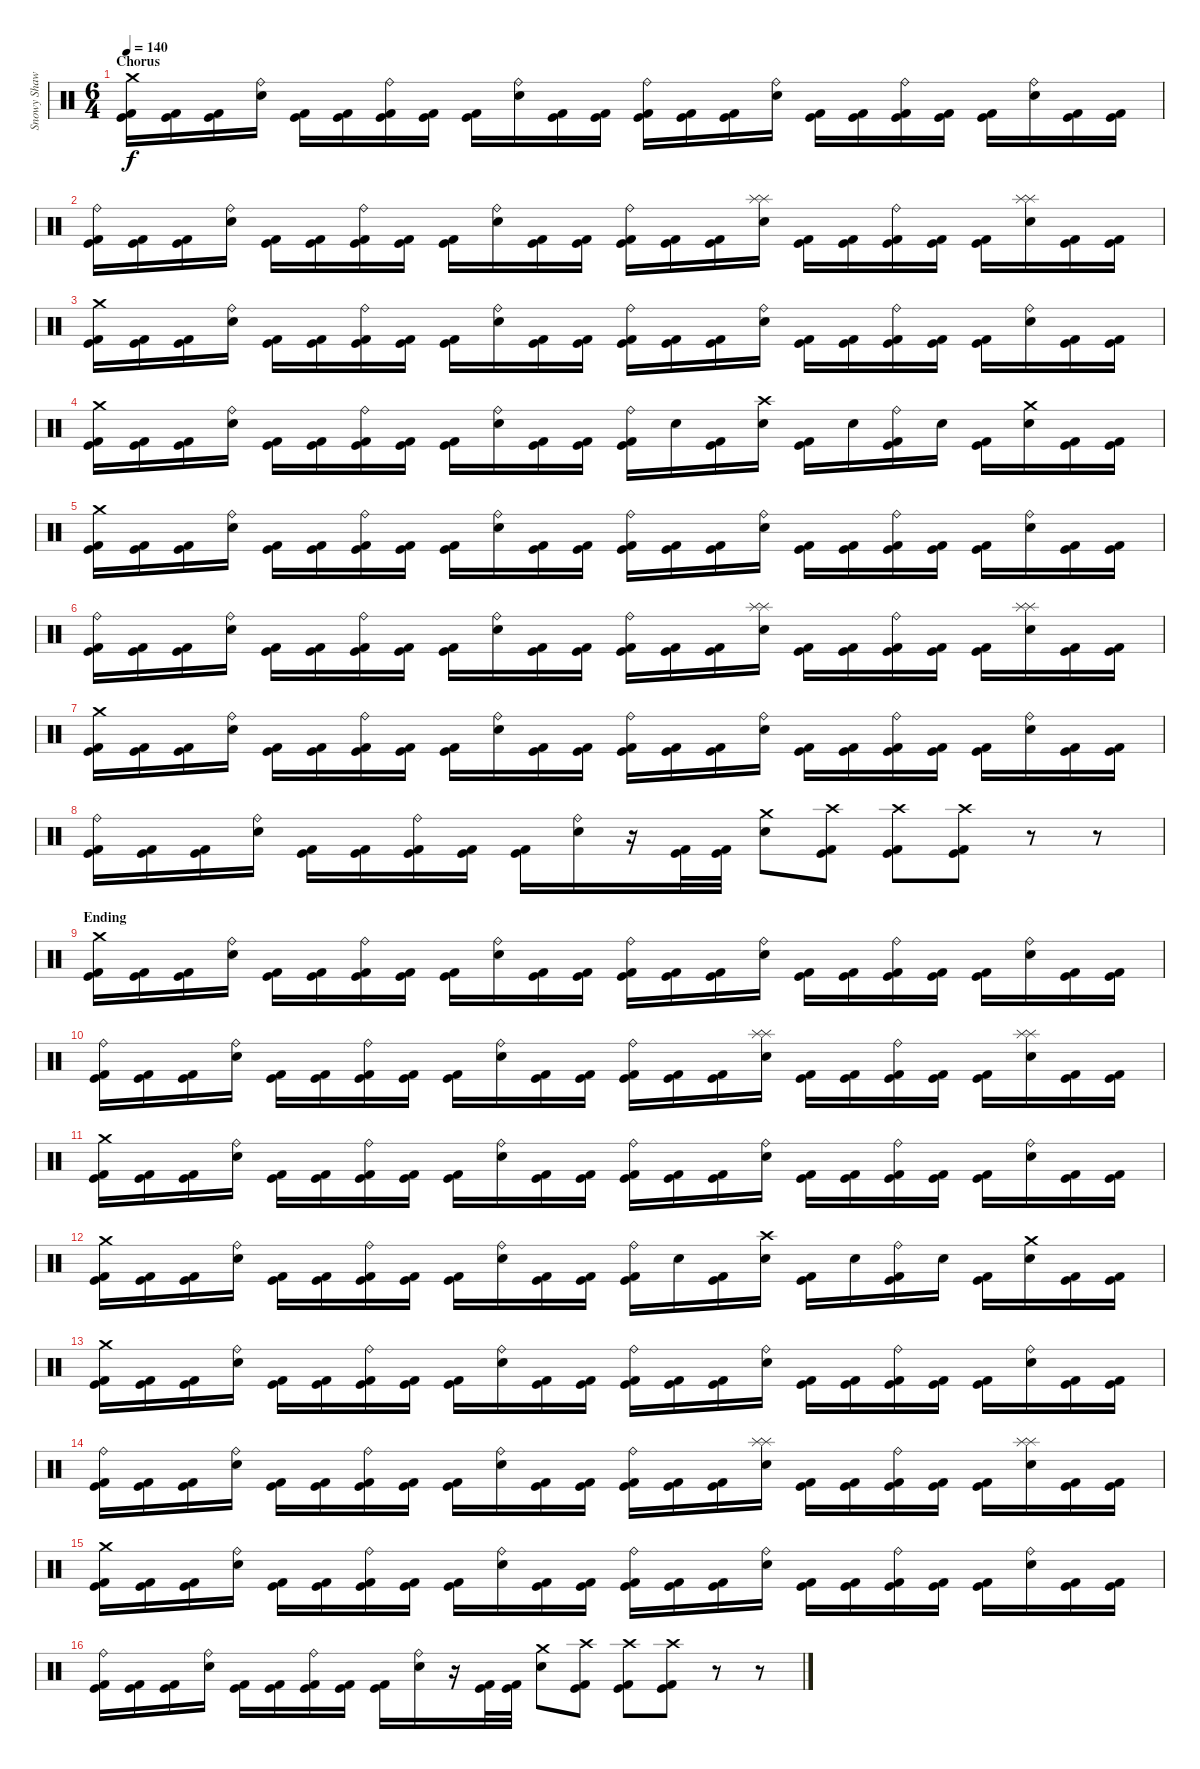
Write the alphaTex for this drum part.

\track ("Snowy Shaw" "Snowy Shaw") {instrument percussion}
\staff {score}
\articulation defaults
\ts (6 4)
\section ("" "Chorus")
\tempo 140
\clef neutral
\ks c
("Crash medium (hit)" "Kick (hit) 2" "Kick (hit)").16{dy f} ("Kick (hit) 2" "Kick (hit)").16 ("Kick (hit) 2" "Kick (hit)").16 ("Ride (bell)" "Electric Snare (hit)").16 ("Kick (hit) 2" "Kick (hit)").16 ("Kick (hit) 2" "Kick (hit)").16 ("Ride (bell)" "Kick (hit) 2" "Kick (hit)").16 ("Kick (hit) 2" "Kick (hit)").16 ("Kick (hit)" "Kick (hit) 2").16 ("Ride (bell)" "Electric Snare (hit)").16 ("Kick (hit)" "Kick (hit) 2").16 ("Kick (hit)" "Kick (hit) 2").16 ("Ride (bell)" "Kick (hit)" "Kick (hit) 2").16 ("Kick (hit) 2" "Kick (hit)").16 ("Kick (hit)" "Kick (hit) 2").16 ("Ride (bell)" "Electric Snare (hit)").16 ("Kick (hit) 2" "Kick (hit)").16 ("Kick (hit) 2" "Kick (hit)").16 ("Ride (bell)" "Kick (hit) 2" "Kick (hit)").16 ("Kick (hit) 2" "Kick (hit)").16 ("Kick (hit)" "Kick (hit) 2").16 ("Ride (bell)" "Electric Snare (hit)").16 ("Kick (hit)" "Kick (hit) 2").16 ("Kick (hit)" "Kick (hit) 2").16 |
("Ride (bell)" "Kick (hit) 2" "Kick (hit)").16 ("Kick (hit) 2" "Kick (hit)").16 ("Kick (hit) 2" "Kick (hit)").16 ("Ride (bell)" "Electric Snare (hit)").16 ("Kick (hit) 2" "Kick (hit)").16 ("Kick (hit) 2" "Kick (hit)").16 ("Ride (bell)" "Kick (hit) 2" "Kick (hit)").16 ("Kick (hit) 2" "Kick (hit)").16 ("Kick (hit)" "Kick (hit) 2").16 ("Ride (bell)" "Electric Snare (hit)").16 ("Kick (hit)" "Kick (hit) 2").16 ("Kick (hit)" "Kick (hit) 2").16 ("Ride (bell)" "Kick (hit)" "Kick (hit) 2").16 ("Kick (hit) 2" "Kick (hit)").16 ("Kick (hit)" "Kick (hit) 2").16 ("Splash (hit)" "Splash (hit)" "Electric Snare (hit)").16 ("Kick (hit) 2" "Kick (hit)").16 ("Kick (hit) 2" "Kick (hit)").16 ("Ride (bell)" "Kick (hit) 2" "Kick (hit)").16 ("Kick (hit) 2" "Kick (hit)").16 ("Kick (hit)" "Kick (hit) 2").16 ("Splash (hit)" "Splash (hit)" "Electric Snare (hit)").16 ("Kick (hit)" "Kick (hit) 2").16 ("Kick (hit)" "Kick (hit) 2").16 |
("Crash medium (hit)" "Kick (hit) 2" "Kick (hit)").16 ("Kick (hit) 2" "Kick (hit)").16 ("Kick (hit) 2" "Kick (hit)").16 ("Ride (bell)" "Electric Snare (hit)").16 ("Kick (hit) 2" "Kick (hit)").16 ("Kick (hit) 2" "Kick (hit)").16 ("Ride (bell)" "Kick (hit) 2" "Kick (hit)").16 ("Kick (hit) 2" "Kick (hit)").16 ("Kick (hit)" "Kick (hit) 2").16 ("Ride (bell)" "Electric Snare (hit)").16 ("Kick (hit)" "Kick (hit) 2").16 ("Kick (hit)" "Kick (hit) 2").16 ("Ride (bell)" "Kick (hit)" "Kick (hit) 2").16 ("Kick (hit) 2" "Kick (hit)").16 ("Kick (hit)" "Kick (hit) 2").16 ("Ride (bell)" "Electric Snare (hit)").16 ("Kick (hit) 2" "Kick (hit)").16 ("Kick (hit) 2" "Kick (hit)").16 ("Ride (bell)" "Kick (hit) 2" "Kick (hit)").16 ("Kick (hit) 2" "Kick (hit)").16 ("Kick (hit)" "Kick (hit) 2").16 ("Ride (bell)" "Electric Snare (hit)").16 ("Kick (hit)" "Kick (hit) 2").16 ("Kick (hit)" "Kick (hit) 2").16 |
("Crash medium (hit)" "Kick (hit) 2" "Kick (hit)").16 ("Kick (hit) 2" "Kick (hit)").16 ("Kick (hit) 2" "Kick (hit)").16 ("Ride (bell)" "Electric Snare (hit)").16 ("Kick (hit) 2" "Kick (hit)").16 ("Kick (hit) 2" "Kick (hit)").16 ("Ride (bell)" "Kick (hit) 2" "Kick (hit)").16 ("Kick (hit) 2" "Kick (hit)").16 ("Kick (hit)" "Kick (hit) 2").16 ("Ride (bell)" "Electric Snare (hit)").16 ("Kick (hit)" "Kick (hit) 2").16 ("Kick (hit)" "Kick (hit) 2").16 ("Ride (bell)" "Kick (hit)" "Kick (hit) 2").16 "Electric Snare (hit)".16 ("Kick (hit)" "Kick (hit) 2").16 ("Crash high (hit)" "Electric Snare (hit)").16 ("Kick (hit) 2" "Kick (hit)").16 "Electric Snare (hit)".16 ("Ride (bell)" "Kick (hit) 2" "Kick (hit)").16 "Electric Snare (hit)".16 ("Kick (hit)" "Kick (hit) 2").16 ("Crash medium (hit)" "Electric Snare (hit)").16 ("Kick (hit)" "Kick (hit) 2").16 ("Kick (hit)" "Kick (hit) 2").16 |
("Crash medium (hit)" "Kick (hit) 2" "Kick (hit)").16 ("Kick (hit) 2" "Kick (hit)").16 ("Kick (hit) 2" "Kick (hit)").16 ("Ride (bell)" "Electric Snare (hit)").16 ("Kick (hit) 2" "Kick (hit)").16 ("Kick (hit) 2" "Kick (hit)").16 ("Ride (bell)" "Kick (hit) 2" "Kick (hit)").16 ("Kick (hit) 2" "Kick (hit)").16 ("Kick (hit)" "Kick (hit) 2").16 ("Ride (bell)" "Electric Snare (hit)").16 ("Kick (hit)" "Kick (hit) 2").16 ("Kick (hit)" "Kick (hit) 2").16 ("Ride (bell)" "Kick (hit)" "Kick (hit) 2").16 ("Kick (hit) 2" "Kick (hit)").16 ("Kick (hit)" "Kick (hit) 2").16 ("Ride (bell)" "Electric Snare (hit)").16 ("Kick (hit) 2" "Kick (hit)").16 ("Kick (hit) 2" "Kick (hit)").16 ("Ride (bell)" "Kick (hit) 2" "Kick (hit)").16 ("Kick (hit) 2" "Kick (hit)").16 ("Kick (hit)" "Kick (hit) 2").16 ("Ride (bell)" "Electric Snare (hit)").16 ("Kick (hit)" "Kick (hit) 2").16 ("Kick (hit)" "Kick (hit) 2").16 |
("Ride (bell)" "Kick (hit) 2" "Kick (hit)").16 ("Kick (hit) 2" "Kick (hit)").16 ("Kick (hit) 2" "Kick (hit)").16 ("Ride (bell)" "Electric Snare (hit)").16 ("Kick (hit) 2" "Kick (hit)").16 ("Kick (hit) 2" "Kick (hit)").16 ("Ride (bell)" "Kick (hit) 2" "Kick (hit)").16 ("Kick (hit) 2" "Kick (hit)").16 ("Kick (hit)" "Kick (hit) 2").16 ("Ride (bell)" "Electric Snare (hit)").16 ("Kick (hit)" "Kick (hit) 2").16 ("Kick (hit)" "Kick (hit) 2").16 ("Ride (bell)" "Kick (hit)" "Kick (hit) 2").16 ("Kick (hit) 2" "Kick (hit)").16 ("Kick (hit)" "Kick (hit) 2").16 ("Splash (hit)" "Splash (hit)" "Electric Snare (hit)").16 ("Kick (hit) 2" "Kick (hit)").16 ("Kick (hit) 2" "Kick (hit)").16 ("Ride (bell)" "Kick (hit) 2" "Kick (hit)").16 ("Kick (hit) 2" "Kick (hit)").16 ("Kick (hit)" "Kick (hit) 2").16 ("Splash (hit)" "Splash (hit)" "Electric Snare (hit)").16 ("Kick (hit)" "Kick (hit) 2").16 ("Kick (hit)" "Kick (hit) 2").16 |
("Crash medium (hit)" "Kick (hit) 2" "Kick (hit)").16 ("Kick (hit) 2" "Kick (hit)").16 ("Kick (hit) 2" "Kick (hit)").16 ("Ride (bell)" "Electric Snare (hit)").16 ("Kick (hit) 2" "Kick (hit)").16 ("Kick (hit) 2" "Kick (hit)").16 ("Ride (bell)" "Kick (hit) 2" "Kick (hit)").16 ("Kick (hit) 2" "Kick (hit)").16 ("Kick (hit)" "Kick (hit) 2").16 ("Ride (bell)" "Electric Snare (hit)").16 ("Kick (hit)" "Kick (hit) 2").16 ("Kick (hit)" "Kick (hit) 2").16 ("Ride (bell)" "Kick (hit)" "Kick (hit) 2").16 ("Kick (hit) 2" "Kick (hit)").16 ("Kick (hit)" "Kick (hit) 2").16 ("Ride (bell)" "Electric Snare (hit)").16 ("Kick (hit) 2" "Kick (hit)").16 ("Kick (hit) 2" "Kick (hit)").16 ("Ride (bell)" "Kick (hit) 2" "Kick (hit)").16 ("Kick (hit) 2" "Kick (hit)").16 ("Kick (hit)" "Kick (hit) 2").16 ("Ride (bell)" "Electric Snare (hit)").16 ("Kick (hit)" "Kick (hit) 2").16 ("Kick (hit)" "Kick (hit) 2").16 |
("Ride (bell)" "Kick (hit) 2" "Kick (hit)").16 ("Kick (hit) 2" "Kick (hit)").16 ("Kick (hit) 2" "Kick (hit)").16 ("Ride (bell)" "Electric Snare (hit)").16 ("Kick (hit) 2" "Kick (hit)").16 ("Kick (hit) 2" "Kick (hit)").16 ("Ride (bell)" "Kick (hit) 2" "Kick (hit)").16 ("Kick (hit) 2" "Kick (hit)").16 ("Kick (hit)" "Kick (hit) 2").16 ("Ride (bell)" "Electric Snare (hit)").16 r.16 ("Kick (hit) 2" "Kick (hit)").32 ("Kick (hit) 2" "Kick (hit)").32 ("Crash medium (hit)" "Electric Snare (hit)").8 ("Crash high (hit)" "Kick (hit)" "Kick (hit) 2").8 ("Crash high (hit)" "Kick (hit)" "Kick (hit) 2").8 ("Crash high (hit)" "Kick (hit) 2" "Kick (hit)").8 r.8 r.8 |
\section ("" "Ending")
("Crash medium (hit)" "Kick (hit) 2" "Kick (hit)").16 ("Kick (hit) 2" "Kick (hit)").16 ("Kick (hit) 2" "Kick (hit)").16 ("Ride (bell)" "Electric Snare (hit)").16 ("Kick (hit) 2" "Kick (hit)").16 ("Kick (hit) 2" "Kick (hit)").16 ("Ride (bell)" "Kick (hit) 2" "Kick (hit)").16 ("Kick (hit) 2" "Kick (hit)").16 ("Kick (hit)" "Kick (hit) 2").16 ("Ride (bell)" "Electric Snare (hit)").16 ("Kick (hit)" "Kick (hit) 2").16 ("Kick (hit)" "Kick (hit) 2").16 ("Ride (bell)" "Kick (hit)" "Kick (hit) 2").16 ("Kick (hit) 2" "Kick (hit)").16 ("Kick (hit)" "Kick (hit) 2").16 ("Ride (bell)" "Electric Snare (hit)").16 ("Kick (hit) 2" "Kick (hit)").16 ("Kick (hit) 2" "Kick (hit)").16 ("Ride (bell)" "Kick (hit) 2" "Kick (hit)").16 ("Kick (hit) 2" "Kick (hit)").16 ("Kick (hit)" "Kick (hit) 2").16 ("Ride (bell)" "Electric Snare (hit)").16 ("Kick (hit)" "Kick (hit) 2").16 ("Kick (hit)" "Kick (hit) 2").16 |
("Ride (bell)" "Kick (hit) 2" "Kick (hit)").16 ("Kick (hit) 2" "Kick (hit)").16 ("Kick (hit) 2" "Kick (hit)").16 ("Ride (bell)" "Electric Snare (hit)").16 ("Kick (hit) 2" "Kick (hit)").16 ("Kick (hit) 2" "Kick (hit)").16 ("Ride (bell)" "Kick (hit) 2" "Kick (hit)").16 ("Kick (hit) 2" "Kick (hit)").16 ("Kick (hit)" "Kick (hit) 2").16 ("Ride (bell)" "Electric Snare (hit)").16 ("Kick (hit)" "Kick (hit) 2").16 ("Kick (hit)" "Kick (hit) 2").16 ("Ride (bell)" "Kick (hit)" "Kick (hit) 2").16 ("Kick (hit) 2" "Kick (hit)").16 ("Kick (hit)" "Kick (hit) 2").16 ("Splash (hit)" "Splash (hit)" "Electric Snare (hit)").16 ("Kick (hit) 2" "Kick (hit)").16 ("Kick (hit) 2" "Kick (hit)").16 ("Ride (bell)" "Kick (hit) 2" "Kick (hit)").16 ("Kick (hit) 2" "Kick (hit)").16 ("Kick (hit)" "Kick (hit) 2").16 ("Splash (hit)" "Splash (hit)" "Electric Snare (hit)").16 ("Kick (hit)" "Kick (hit) 2").16 ("Kick (hit)" "Kick (hit) 2").16 |
("Crash medium (hit)" "Kick (hit) 2" "Kick (hit)").16 ("Kick (hit) 2" "Kick (hit)").16 ("Kick (hit) 2" "Kick (hit)").16 ("Ride (bell)" "Electric Snare (hit)").16 ("Kick (hit) 2" "Kick (hit)").16 ("Kick (hit) 2" "Kick (hit)").16 ("Ride (bell)" "Kick (hit) 2" "Kick (hit)").16 ("Kick (hit) 2" "Kick (hit)").16 ("Kick (hit)" "Kick (hit) 2").16 ("Ride (bell)" "Electric Snare (hit)").16 ("Kick (hit)" "Kick (hit) 2").16 ("Kick (hit)" "Kick (hit) 2").16 ("Ride (bell)" "Kick (hit)" "Kick (hit) 2").16 ("Kick (hit) 2" "Kick (hit)").16 ("Kick (hit)" "Kick (hit) 2").16 ("Ride (bell)" "Electric Snare (hit)").16 ("Kick (hit) 2" "Kick (hit)").16 ("Kick (hit) 2" "Kick (hit)").16 ("Ride (bell)" "Kick (hit) 2" "Kick (hit)").16 ("Kick (hit) 2" "Kick (hit)").16 ("Kick (hit)" "Kick (hit) 2").16 ("Ride (bell)" "Electric Snare (hit)").16 ("Kick (hit)" "Kick (hit) 2").16 ("Kick (hit)" "Kick (hit) 2").16 |
("Crash medium (hit)" "Kick (hit) 2" "Kick (hit)").16 ("Kick (hit) 2" "Kick (hit)").16 ("Kick (hit) 2" "Kick (hit)").16 ("Ride (bell)" "Electric Snare (hit)").16 ("Kick (hit) 2" "Kick (hit)").16 ("Kick (hit) 2" "Kick (hit)").16 ("Ride (bell)" "Kick (hit) 2" "Kick (hit)").16 ("Kick (hit) 2" "Kick (hit)").16 ("Kick (hit)" "Kick (hit) 2").16 ("Ride (bell)" "Electric Snare (hit)").16 ("Kick (hit)" "Kick (hit) 2").16 ("Kick (hit)" "Kick (hit) 2").16 ("Ride (bell)" "Kick (hit)" "Kick (hit) 2").16 "Electric Snare (hit)".16 ("Kick (hit)" "Kick (hit) 2").16 ("Crash high (hit)" "Electric Snare (hit)").16 ("Kick (hit) 2" "Kick (hit)").16 "Electric Snare (hit)".16 ("Ride (bell)" "Kick (hit) 2" "Kick (hit)").16 "Electric Snare (hit)".16 ("Kick (hit)" "Kick (hit) 2").16 ("Crash medium (hit)" "Electric Snare (hit)").16 ("Kick (hit)" "Kick (hit) 2").16 ("Kick (hit)" "Kick (hit) 2").16 |
("Crash medium (hit)" "Kick (hit) 2" "Kick (hit)").16 ("Kick (hit) 2" "Kick (hit)").16 ("Kick (hit) 2" "Kick (hit)").16 ("Ride (bell)" "Electric Snare (hit)").16 ("Kick (hit) 2" "Kick (hit)").16 ("Kick (hit) 2" "Kick (hit)").16 ("Ride (bell)" "Kick (hit) 2" "Kick (hit)").16 ("Kick (hit) 2" "Kick (hit)").16 ("Kick (hit)" "Kick (hit) 2").16 ("Ride (bell)" "Electric Snare (hit)").16 ("Kick (hit)" "Kick (hit) 2").16 ("Kick (hit)" "Kick (hit) 2").16 ("Ride (bell)" "Kick (hit)" "Kick (hit) 2").16 ("Kick (hit) 2" "Kick (hit)").16 ("Kick (hit)" "Kick (hit) 2").16 ("Ride (bell)" "Electric Snare (hit)").16 ("Kick (hit) 2" "Kick (hit)").16 ("Kick (hit) 2" "Kick (hit)").16 ("Ride (bell)" "Kick (hit) 2" "Kick (hit)").16 ("Kick (hit) 2" "Kick (hit)").16 ("Kick (hit)" "Kick (hit) 2").16 ("Ride (bell)" "Electric Snare (hit)").16 ("Kick (hit)" "Kick (hit) 2").16 ("Kick (hit)" "Kick (hit) 2").16 |
("Ride (bell)" "Kick (hit) 2" "Kick (hit)").16 ("Kick (hit) 2" "Kick (hit)").16 ("Kick (hit) 2" "Kick (hit)").16 ("Ride (bell)" "Electric Snare (hit)").16 ("Kick (hit) 2" "Kick (hit)").16 ("Kick (hit) 2" "Kick (hit)").16 ("Ride (bell)" "Kick (hit) 2" "Kick (hit)").16 ("Kick (hit) 2" "Kick (hit)").16 ("Kick (hit)" "Kick (hit) 2").16 ("Ride (bell)" "Electric Snare (hit)").16 ("Kick (hit)" "Kick (hit) 2").16 ("Kick (hit)" "Kick (hit) 2").16 ("Ride (bell)" "Kick (hit)" "Kick (hit) 2").16 ("Kick (hit) 2" "Kick (hit)").16 ("Kick (hit)" "Kick (hit) 2").16 ("Splash (hit)" "Splash (hit)" "Electric Snare (hit)").16 ("Kick (hit) 2" "Kick (hit)").16 ("Kick (hit) 2" "Kick (hit)").16 ("Ride (bell)" "Kick (hit) 2" "Kick (hit)").16 ("Kick (hit) 2" "Kick (hit)").16 ("Kick (hit)" "Kick (hit) 2").16 ("Splash (hit)" "Splash (hit)" "Electric Snare (hit)").16 ("Kick (hit)" "Kick (hit) 2").16 ("Kick (hit)" "Kick (hit) 2").16 |
("Crash medium (hit)" "Kick (hit) 2" "Kick (hit)").16 ("Kick (hit) 2" "Kick (hit)").16 ("Kick (hit) 2" "Kick (hit)").16 ("Ride (bell)" "Electric Snare (hit)").16 ("Kick (hit) 2" "Kick (hit)").16 ("Kick (hit) 2" "Kick (hit)").16 ("Ride (bell)" "Kick (hit) 2" "Kick (hit)").16 ("Kick (hit) 2" "Kick (hit)").16 ("Kick (hit)" "Kick (hit) 2").16 ("Ride (bell)" "Electric Snare (hit)").16 ("Kick (hit)" "Kick (hit) 2").16 ("Kick (hit)" "Kick (hit) 2").16 ("Ride (bell)" "Kick (hit)" "Kick (hit) 2").16 ("Kick (hit) 2" "Kick (hit)").16 ("Kick (hit)" "Kick (hit) 2").16 ("Ride (bell)" "Electric Snare (hit)").16 ("Kick (hit) 2" "Kick (hit)").16 ("Kick (hit) 2" "Kick (hit)").16 ("Ride (bell)" "Kick (hit) 2" "Kick (hit)").16 ("Kick (hit) 2" "Kick (hit)").16 ("Kick (hit)" "Kick (hit) 2").16 ("Ride (bell)" "Electric Snare (hit)").16 ("Kick (hit)" "Kick (hit) 2").16 ("Kick (hit)" "Kick (hit) 2").16 |
("Ride (bell)" "Kick (hit) 2" "Kick (hit)").16 ("Kick (hit) 2" "Kick (hit)").16 ("Kick (hit) 2" "Kick (hit)").16 ("Ride (bell)" "Electric Snare (hit)").16 ("Kick (hit) 2" "Kick (hit)").16 ("Kick (hit) 2" "Kick (hit)").16 ("Ride (bell)" "Kick (hit) 2" "Kick (hit)").16 ("Kick (hit) 2" "Kick (hit)").16 ("Kick (hit)" "Kick (hit) 2").16 ("Ride (bell)" "Electric Snare (hit)").16 r.16 ("Kick (hit) 2" "Kick (hit)").32 ("Kick (hit) 2" "Kick (hit)").32 ("Crash medium (hit)" "Electric Snare (hit)").8 ("Crash high (hit)" "Kick (hit)" "Kick (hit) 2").8 ("Crash high (hit)" "Kick (hit)" "Kick (hit) 2").8 ("Crash high (hit)" "Kick (hit) 2" "Kick (hit)").8 r.8 r.8
